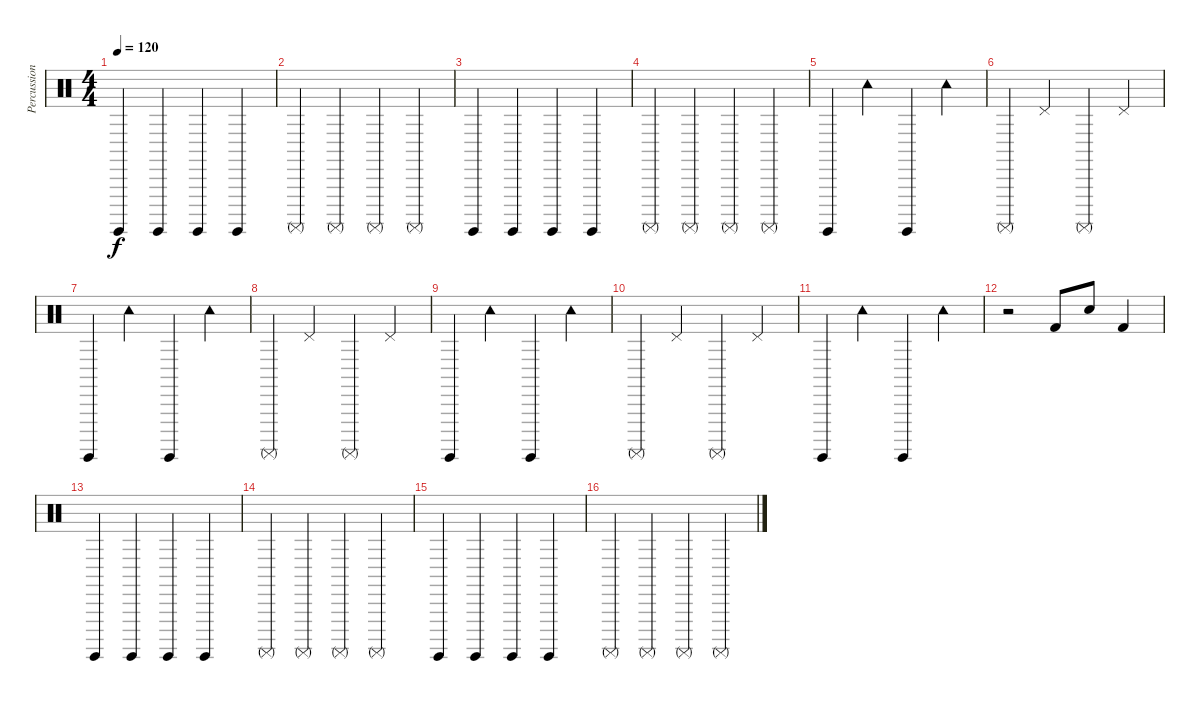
\track ("Percussion" "Percussion") {instrument percussion}
\staff {score}
\articulation defaults
\ts (4 4)
\tempo 120
\clef neutral
\ks c "Surdo (hit)".4{dy f} "Surdo (hit)".4 "Surdo (hit)".4 "Surdo (hit)".4
|
"Surdo (mute)".4 "Surdo (mute)".4 "Surdo (mute)".4 "Surdo (mute)".4 |
"Surdo (hit)".4 "Surdo (hit)".4 "Surdo (hit)".4 "Surdo (hit)".4 |
"Surdo (mute)".4 "Surdo (mute)".4 "Surdo (mute)".4 "Surdo (mute)".4 |
"Surdo (hit)".4 "Tambourine (hit)".4 "Surdo (hit)".4 "Tambourine (hit)".4 |
"Surdo (mute)".4 "Pedal Hi-Hat (hit)".4 "Surdo (mute)".4 "Pedal Hi-Hat (hit)".4 |
"Surdo (hit)".4 "Tambourine (hit)".4 "Surdo (hit)".4 "Tambourine (hit)".4 |
"Surdo (mute)".4 "Pedal Hi-Hat (hit)".4 "Surdo (mute)".4 "Pedal Hi-Hat (hit)".4 |
"Surdo (hit)".4 "Tambourine (hit)".4 "Surdo (hit)".4 "Tambourine (hit)".4 |
"Surdo (mute)".4 "Pedal Hi-Hat (hit)".4 "Surdo (mute)".4 "Pedal Hi-Hat (hit)".4 |
"Surdo (hit)".4 "Tambourine (hit)".4 "Surdo (hit)".4 "Tambourine (hit)".4 |
r.2 "Kick (hit) 2".8 "Electric Snare (hit)".8 "Kick (hit) 2".4 |
"Surdo (hit)".4 "Surdo (hit)".4 "Surdo (hit)".4 "Surdo (hit)".4 |
"Surdo (mute)".4 "Surdo (mute)".4 "Surdo (mute)".4 "Surdo (mute)".4 |
"Surdo (hit)".4 "Surdo (hit)".4 "Surdo (hit)".4 "Surdo (hit)".4 |
"Surdo (mute)".4 "Surdo (mute)".4 "Surdo (mute)".4 "Surdo (mute)".4
